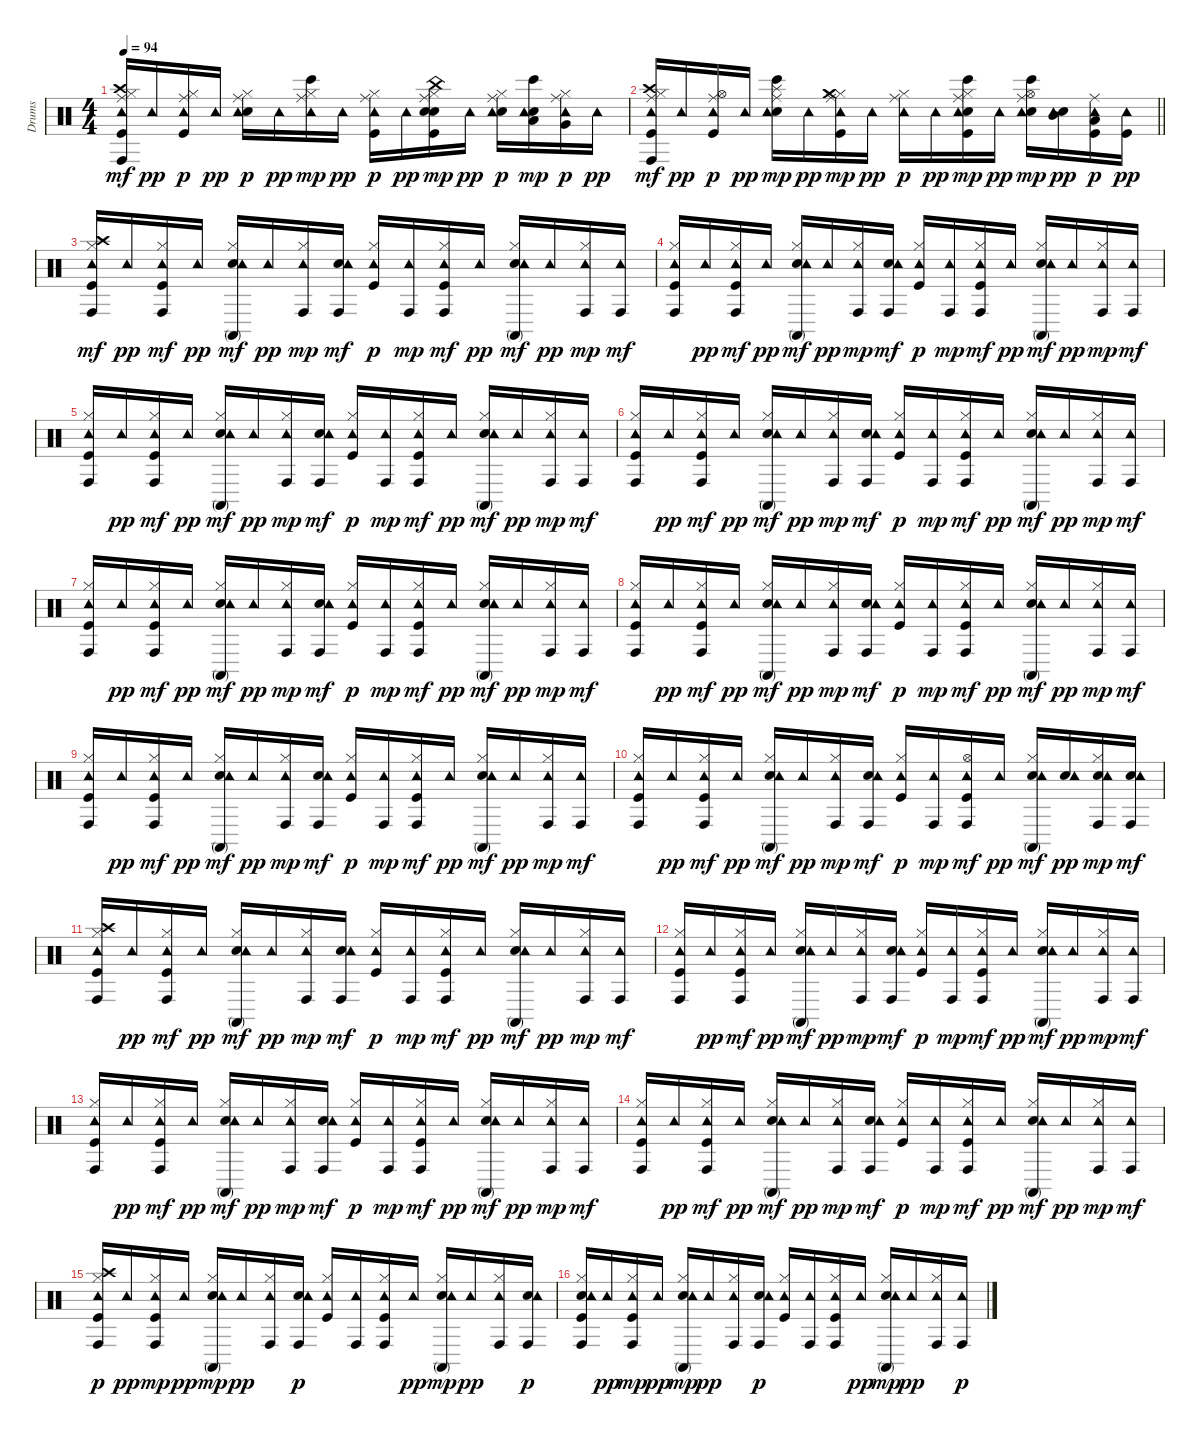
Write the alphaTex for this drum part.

\track ("Drums" "Drums") {instrument percussion}
\staff {score}
\articulation defaults
\ts (4 4)
\tempo 94
\clef neutral
\ks c
("Kick (hit)" "Hi-Hat (closed)" "Crash high (hit)" "Ride (middle)" "Tambourine (hit)" "Conga high (hit)").16{dy mf} "Tambourine (hit)".16{dy pp} ("Kick (hit)" "Hi-Hat (closed)" "Ride (middle)" "Tambourine (hit)").16{dy p} "Tambourine (hit)".16{dy pp} ("Electric Snare (hit)" "Hi-Hat (closed)" "Ride (middle)" "Tambourine (hit)").16{dy p} "Tambourine (hit)".16{dy pp} ("Hi-Hat (closed)" "Ride (middle)" "Tambourine (hit)" "Bongo High (hit)").16{dy mp} "Tambourine (hit)".16{dy pp} ("Kick (hit)" "Hi-Hat (closed)" "Ride (middle)" "Tambourine (hit)").16{dy p} "Tambourine (hit)".16{dy pp} ("Kick (hit)" "Electric Snare (hit)" "Electric Snare (hit)" "Hi-Hat (closed)" "Ride (middle)" "China (hit)").16{dy mp} "Tambourine (hit)".16{dy pp} ("Electric Snare (hit)" "Hi-Hat (closed)" "Ride (middle)" "Tambourine (hit)").16{dy p} ("Electric Snare (hit)" "Low Tom (hit)" "Tambourine (hit)" "Bongo High (hit)").16{dy mp} ("Hi-Hat (closed)" "Very Low Tom (hit)" "Ride (middle)" "Tambourine (hit)").16{dy p} "Tambourine (hit)".16{dy pp} |
\barLineRight lightlight
("Kick (hit)" "Hi-Hat (closed)" "Crash high (hit)" "Ride (middle)" "Tambourine (hit)" "Conga high (hit)").16{dy mf} "Tambourine (hit)".16{dy pp} ("Kick (hit)" "Hi-Hat (open)" "Ride (middle)" "Tambourine (hit)").16{dy p} "Tambourine (hit)".16{dy pp} ("Electric Snare (hit)" "Ride (middle)" "Tambourine (hit)" "Splash (hit)" "Bongo High (hit)").16{dy mp} "Tambourine (hit)".16{dy pp} ("Kick (hit)" "Hi-Hat (closed)" "Ride (middle)" "Tambourine (hit)" "Crash medium (hit)").16{dy mp} "Tambourine (hit)".16{dy pp} ("Hi-Hat (closed)" "Ride (middle)" "Tambourine (hit)").16{dy p} "Tambourine (hit)".16{dy pp} ("Kick (hit)" "Electric Snare (hit)" "Hi-Hat (closed)" "Ride (middle)" "Tambourine (hit)" "Bongo High (hit)").16{dy mp} "Tambourine (hit)".16{dy pp} ("Electric Snare (hit)" "Hi-Hat (open)" "Ride (middle)" "Tambourine (hit)" "Bongo High (hit)").16{dy mp} ("Electric Snare (hit)" "Mid Tom (hit)" "Tambourine (hit)").16{dy pp} ("Kick (hit)" "Low Tom (hit)" "Ride (middle)" "Tambourine (hit)").16{dy p} ("Kick (hit)" "Tambourine (hit)").16{dy pp} |
("Kick (hit)" "Hi-Hat (closed)" "Crash high (hit)" "Tambourine (hit)" "Conga high (hit)").16{dy mf} "Tambourine (hit)".16{dy pp} ("Kick (hit)" "Hi-Hat (closed)" "Tambourine (hit)" "Conga high (hit)").16{dy mf} "Tambourine (hit)".16{dy pp} ("Electric Snare (hit)" "Hi-Hat (closed)" "Tambourine (hit)" "Conga high (mute)").16{dy mf} "Tambourine (hit)".16{dy pp} ("Hi-Hat (closed)" "Tambourine (hit)" "Conga high (hit)").16{dy mp} ("Electric Snare (hit)" "Tambourine (hit)" "Conga high (hit)").16{dy mf} ("Kick (hit)" "Hi-Hat (closed)" "Tambourine (hit)").16{dy p} ("Tambourine (hit)" "Conga high (hit)").16{dy mp} ("Kick (hit)" "Hi-Hat (closed)" "Tambourine (hit)" "Conga high (hit)").16{dy mf} "Tambourine (hit)".16{dy pp} ("Electric Snare (hit)" "Hi-Hat (closed)" "Tambourine (hit)" "Conga high (mute)").16{dy mf} "Tambourine (hit)".16{dy pp} ("Hi-Hat (closed)" "Tambourine (hit)" "Conga high (hit)").16{dy mp} ("Tambourine (hit)" "Conga high (hit)").16{dy mf} |
("Kick (hit)" "Hi-Hat (closed)" "Tambourine (hit)" "Conga high (hit)").16 "Tambourine (hit)".16{dy pp} ("Kick (hit)" "Hi-Hat (closed)" "Tambourine (hit)" "Conga high (hit)").16{dy mf} "Tambourine (hit)".16{dy pp} ("Electric Snare (hit)" "Hi-Hat (closed)" "Tambourine (hit)" "Conga high (mute)").16{dy mf} "Tambourine (hit)".16{dy pp} ("Hi-Hat (closed)" "Tambourine (hit)" "Conga high (hit)").16{dy mp} ("Electric Snare (hit)" "Tambourine (hit)" "Conga high (hit)").16{dy mf} ("Kick (hit)" "Hi-Hat (closed)" "Tambourine (hit)").16{dy p} ("Tambourine (hit)" "Conga high (hit)").16{dy mp} ("Kick (hit)" "Hi-Hat (closed)" "Tambourine (hit)" "Conga high (hit)").16{dy mf} "Tambourine (hit)".16{dy pp} ("Electric Snare (hit)" "Hi-Hat (closed)" "Tambourine (hit)" "Conga high (mute)").16{dy mf} "Tambourine (hit)".16{dy pp} ("Hi-Hat (closed)" "Tambourine (hit)" "Conga high (hit)").16{dy mp} ("Tambourine (hit)" "Conga high (hit)").16{dy mf} |
("Kick (hit)" "Hi-Hat (closed)" "Tambourine (hit)" "Conga high (hit)").16 "Tambourine (hit)".16{dy pp} ("Kick (hit)" "Hi-Hat (closed)" "Tambourine (hit)" "Conga high (hit)").16{dy mf} "Tambourine (hit)".16{dy pp} ("Electric Snare (hit)" "Hi-Hat (closed)" "Tambourine (hit)" "Conga high (mute)").16{dy mf} "Tambourine (hit)".16{dy pp} ("Hi-Hat (closed)" "Tambourine (hit)" "Conga high (hit)").16{dy mp} ("Electric Snare (hit)" "Tambourine (hit)" "Conga high (hit)").16{dy mf} ("Kick (hit)" "Hi-Hat (closed)" "Tambourine (hit)").16{dy p} ("Tambourine (hit)" "Conga high (hit)").16{dy mp} ("Kick (hit)" "Hi-Hat (closed)" "Tambourine (hit)" "Conga high (hit)").16{dy mf} "Tambourine (hit)".16{dy pp} ("Electric Snare (hit)" "Hi-Hat (closed)" "Tambourine (hit)" "Conga high (mute)").16{dy mf} "Tambourine (hit)".16{dy pp} ("Hi-Hat (closed)" "Tambourine (hit)" "Conga high (hit)").16{dy mp} ("Tambourine (hit)" "Conga high (hit)").16{dy mf} |
("Kick (hit)" "Hi-Hat (closed)" "Tambourine (hit)" "Conga high (hit)").16 "Tambourine (hit)".16{dy pp} ("Kick (hit)" "Hi-Hat (closed)" "Tambourine (hit)" "Conga high (hit)").16{dy mf} "Tambourine (hit)".16{dy pp} ("Electric Snare (hit)" "Hi-Hat (closed)" "Tambourine (hit)" "Conga high (mute)").16{dy mf} "Tambourine (hit)".16{dy pp} ("Hi-Hat (closed)" "Tambourine (hit)" "Conga high (hit)").16{dy mp} ("Electric Snare (hit)" "Tambourine (hit)" "Conga high (hit)").16{dy mf} ("Kick (hit)" "Hi-Hat (closed)" "Tambourine (hit)").16{dy p} ("Tambourine (hit)" "Conga high (hit)").16{dy mp} ("Kick (hit)" "Hi-Hat (closed)" "Tambourine (hit)" "Conga high (hit)").16{dy mf} "Tambourine (hit)".16{dy pp} ("Electric Snare (hit)" "Hi-Hat (closed)" "Tambourine (hit)" "Conga high (mute)").16{dy mf} "Tambourine (hit)".16{dy pp} ("Hi-Hat (closed)" "Tambourine (hit)" "Conga high (hit)").16{dy mp} ("Tambourine (hit)" "Conga high (hit)").16{dy mf} |
("Kick (hit)" "Hi-Hat (closed)" "Tambourine (hit)" "Conga high (hit)").16 "Tambourine (hit)".16{dy pp} ("Kick (hit)" "Hi-Hat (closed)" "Tambourine (hit)" "Conga high (hit)").16{dy mf} "Tambourine (hit)".16{dy pp} ("Electric Snare (hit)" "Hi-Hat (closed)" "Tambourine (hit)" "Conga high (mute)").16{dy mf} "Tambourine (hit)".16{dy pp} ("Hi-Hat (closed)" "Tambourine (hit)" "Conga high (hit)").16{dy mp} ("Electric Snare (hit)" "Tambourine (hit)" "Conga high (hit)").16{dy mf} ("Kick (hit)" "Hi-Hat (closed)" "Tambourine (hit)").16{dy p} ("Tambourine (hit)" "Conga high (hit)").16{dy mp} ("Kick (hit)" "Hi-Hat (closed)" "Tambourine (hit)" "Conga high (hit)").16{dy mf} "Tambourine (hit)".16{dy pp} ("Electric Snare (hit)" "Hi-Hat (closed)" "Tambourine (hit)" "Conga high (mute)").16{dy mf} "Tambourine (hit)".16{dy pp} ("Hi-Hat (closed)" "Tambourine (hit)" "Conga high (hit)").16{dy mp} ("Tambourine (hit)" "Conga high (hit)").16{dy mf} |
("Kick (hit)" "Hi-Hat (closed)" "Tambourine (hit)" "Conga high (hit)").16 "Tambourine (hit)".16{dy pp} ("Kick (hit)" "Hi-Hat (closed)" "Tambourine (hit)" "Conga high (hit)").16{dy mf} "Tambourine (hit)".16{dy pp} ("Electric Snare (hit)" "Hi-Hat (closed)" "Tambourine (hit)" "Conga high (mute)").16{dy mf} "Tambourine (hit)".16{dy pp} ("Hi-Hat (closed)" "Tambourine (hit)" "Conga high (hit)").16{dy mp} ("Electric Snare (hit)" "Tambourine (hit)" "Conga high (hit)").16{dy mf} ("Kick (hit)" "Hi-Hat (closed)" "Tambourine (hit)").16{dy p} ("Tambourine (hit)" "Conga high (hit)").16{dy mp} ("Kick (hit)" "Hi-Hat (closed)" "Tambourine (hit)" "Conga high (hit)").16{dy mf} "Tambourine (hit)".16{dy pp} ("Electric Snare (hit)" "Hi-Hat (closed)" "Tambourine (hit)" "Conga high (mute)").16{dy mf} "Tambourine (hit)".16{dy pp} ("Hi-Hat (closed)" "Tambourine (hit)" "Conga high (hit)").16{dy mp} ("Tambourine (hit)" "Conga high (hit)").16{dy mf} |
("Kick (hit)" "Hi-Hat (closed)" "Tambourine (hit)" "Conga high (hit)").16 "Tambourine (hit)".16{dy pp} ("Kick (hit)" "Hi-Hat (closed)" "Tambourine (hit)" "Conga high (hit)").16{dy mf} "Tambourine (hit)".16{dy pp} ("Electric Snare (hit)" "Hi-Hat (closed)" "Tambourine (hit)" "Conga high (mute)").16{dy mf} "Tambourine (hit)".16{dy pp} ("Hi-Hat (closed)" "Tambourine (hit)" "Conga high (hit)").16{dy mp} ("Electric Snare (hit)" "Tambourine (hit)" "Conga high (hit)").16{dy mf} ("Kick (hit)" "Hi-Hat (closed)" "Tambourine (hit)").16{dy p} ("Tambourine (hit)" "Conga high (hit)").16{dy mp} ("Kick (hit)" "Hi-Hat (closed)" "Tambourine (hit)" "Conga high (hit)").16{dy mf} "Tambourine (hit)".16{dy pp} ("Electric Snare (hit)" "Hi-Hat (closed)" "Tambourine (hit)" "Conga high (mute)").16{dy mf} "Tambourine (hit)".16{dy pp} ("Hi-Hat (closed)" "Tambourine (hit)" "Conga high (hit)").16{dy mp} ("Tambourine (hit)" "Conga high (hit)").16{dy mf} |
("Kick (hit)" "Hi-Hat (closed)" "Tambourine (hit)" "Conga high (hit)").16 "Tambourine (hit)".16{dy pp} ("Kick (hit)" "Hi-Hat (closed)" "Tambourine (hit)" "Conga high (hit)").16{dy mf} "Tambourine (hit)".16{dy pp} ("Electric Snare (hit)" "Hi-Hat (closed)" "Tambourine (hit)" "Conga high (mute)").16{dy mf} "Tambourine (hit)".16{dy pp} ("Hi-Hat (closed)" "Tambourine (hit)" "Conga high (hit)").16{dy mp} ("Electric Snare (hit)" "Tambourine (hit)" "Conga high (hit)").16{dy mf} ("Kick (hit)" "Hi-Hat (closed)" "Tambourine (hit)").16{dy p} ("Tambourine (hit)" "Conga high (hit)").16{dy mp} ("Kick (hit)" "Hi-Hat (open)" "Tambourine (hit)" "Conga high (hit)").16{dy mf} "Tambourine (hit)".16{dy pp} ("Electric Snare (hit)" "Hi-Hat (closed)" "Tambourine (hit)" "Conga high (mute)").16{dy mf} ("Electric Snare (hit)" "Tambourine (hit)").16{dy pp} ("Electric Snare (hit)" "Hi-Hat (closed)" "Tambourine (hit)" "Conga high (hit)").16{dy mp} ("Electric Snare (hit)" "Tambourine (hit)" "Conga high (hit)").16{dy mf} |
("Kick (hit)" "Hi-Hat (closed)" "Crash high (hit)" "Tambourine (hit)" "Conga high (hit)").16 "Tambourine (hit)".16{dy pp} ("Kick (hit)" "Hi-Hat (closed)" "Tambourine (hit)" "Conga high (hit)").16{dy mf} "Tambourine (hit)".16{dy pp} ("Electric Snare (hit)" "Hi-Hat (closed)" "Tambourine (hit)" "Conga high (mute)").16{dy mf} "Tambourine (hit)".16{dy pp} ("Hi-Hat (closed)" "Tambourine (hit)" "Conga high (hit)").16{dy mp} ("Electric Snare (hit)" "Tambourine (hit)" "Conga high (hit)").16{dy mf} ("Kick (hit)" "Hi-Hat (closed)" "Tambourine (hit)").16{dy p} ("Tambourine (hit)" "Conga high (hit)").16{dy mp} ("Kick (hit)" "Hi-Hat (closed)" "Tambourine (hit)" "Conga high (hit)").16{dy mf} "Tambourine (hit)".16{dy pp} ("Electric Snare (hit)" "Hi-Hat (closed)" "Tambourine (hit)" "Conga high (mute)").16{dy mf} "Tambourine (hit)".16{dy pp} ("Hi-Hat (closed)" "Tambourine (hit)" "Conga high (hit)").16{dy mp} ("Tambourine (hit)" "Conga high (hit)").16{dy mf} |
("Kick (hit)" "Hi-Hat (closed)" "Tambourine (hit)" "Conga high (hit)").16 "Tambourine (hit)".16{dy pp} ("Kick (hit)" "Hi-Hat (closed)" "Tambourine (hit)" "Conga high (hit)").16{dy mf} "Tambourine (hit)".16{dy pp} ("Electric Snare (hit)" "Hi-Hat (closed)" "Tambourine (hit)" "Conga high (mute)").16{dy mf} "Tambourine (hit)".16{dy pp} ("Hi-Hat (closed)" "Tambourine (hit)" "Conga high (hit)").16{dy mp} ("Electric Snare (hit)" "Tambourine (hit)" "Conga high (hit)").16{dy mf} ("Kick (hit)" "Hi-Hat (closed)" "Tambourine (hit)").16{dy p} ("Tambourine (hit)" "Conga high (hit)").16{dy mp} ("Kick (hit)" "Hi-Hat (closed)" "Tambourine (hit)" "Conga high (hit)").16{dy mf} "Tambourine (hit)".16{dy pp} ("Electric Snare (hit)" "Hi-Hat (closed)" "Tambourine (hit)" "Conga high (mute)").16{dy mf} "Tambourine (hit)".16{dy pp} ("Hi-Hat (closed)" "Tambourine (hit)" "Conga high (hit)").16{dy mp} ("Tambourine (hit)" "Conga high (hit)").16{dy mf} |
("Kick (hit)" "Hi-Hat (closed)" "Tambourine (hit)" "Conga high (hit)").16 "Tambourine (hit)".16{dy pp} ("Kick (hit)" "Hi-Hat (closed)" "Tambourine (hit)" "Conga high (hit)").16{dy mf} "Tambourine (hit)".16{dy pp} ("Electric Snare (hit)" "Hi-Hat (closed)" "Tambourine (hit)" "Conga high (mute)").16{dy mf} "Tambourine (hit)".16{dy pp} ("Hi-Hat (closed)" "Tambourine (hit)" "Conga high (hit)").16{dy mp} ("Electric Snare (hit)" "Tambourine (hit)" "Conga high (hit)").16{dy mf} ("Kick (hit)" "Hi-Hat (closed)" "Tambourine (hit)").16{dy p} ("Tambourine (hit)" "Conga high (hit)").16{dy mp} ("Kick (hit)" "Hi-Hat (closed)" "Tambourine (hit)" "Conga high (hit)").16{dy mf} "Tambourine (hit)".16{dy pp} ("Electric Snare (hit)" "Hi-Hat (closed)" "Tambourine (hit)" "Conga high (mute)").16{dy mf} "Tambourine (hit)".16{dy pp} ("Hi-Hat (closed)" "Tambourine (hit)" "Conga high (hit)").16{dy mp} ("Tambourine (hit)" "Conga high (hit)").16{dy mf} |
("Kick (hit)" "Hi-Hat (closed)" "Tambourine (hit)" "Conga high (hit)").16 "Tambourine (hit)".16{dy pp} ("Kick (hit)" "Hi-Hat (closed)" "Tambourine (hit)" "Conga high (hit)").16{dy mf} "Tambourine (hit)".16{dy pp} ("Electric Snare (hit)" "Hi-Hat (closed)" "Tambourine (hit)" "Conga high (mute)").16{dy mf} "Tambourine (hit)".16{dy pp} ("Hi-Hat (closed)" "Tambourine (hit)" "Conga high (hit)").16{dy mp} ("Electric Snare (hit)" "Tambourine (hit)" "Conga high (hit)").16{dy mf} ("Kick (hit)" "Hi-Hat (closed)" "Tambourine (hit)").16{dy p} ("Tambourine (hit)" "Conga high (hit)").16{dy mp} ("Kick (hit)" "Hi-Hat (closed)" "Tambourine (hit)" "Conga high (hit)").16{dy mf} "Tambourine (hit)".16{dy pp} ("Electric Snare (hit)" "Hi-Hat (closed)" "Tambourine (hit)" "Conga high (mute)").16{dy mf} "Tambourine (hit)".16{dy pp} ("Hi-Hat (closed)" "Tambourine (hit)" "Conga high (hit)").16{dy mp} ("Tambourine (hit)" "Conga high (hit)").16{dy mf} |
("Kick (hit)" "Hi-Hat (closed)" "Crash high (hit)" "Tambourine (hit)" "Conga high (hit)").16{dy p} "Tambourine (hit)".16{dy pp} ("Kick (hit)" "Hi-Hat (closed)" "Tambourine (hit)" "Conga high (hit)").16{dy mp} "Tambourine (hit)".16{dy pp} ("Electric Snare (hit)" "Hi-Hat (closed)" "Tambourine (hit)" "Conga high (mute)").16{dy mp} "Tambourine (hit)".16{dy pp} ("Hi-Hat (closed)" "Tambourine (hit)" "Conga high (hit)").16 ("Electric Snare (hit)" "Tambourine (hit)" "Conga high (hit)").16{dy p} ("Kick (hit)" "Hi-Hat (closed)" "Tambourine (hit)").16 ("Tambourine (hit)" "Conga high (hit)").16 ("Kick (hit)" "Hi-Hat (closed)" "Tambourine (hit)" "Conga high (hit)").16 "Tambourine (hit)".16{dy pp} ("Electric Snare (hit)" "Hi-Hat (closed)" "Tambourine (hit)" "Conga high (mute)").16{dy mp} "Tambourine (hit)".16{dy pp} ("Hi-Hat (closed)" "Tambourine (hit)" "Conga high (hit)").16 ("Electric Snare (hit)" "Tambourine (hit)" "Conga high (hit)").16{dy p} |
("Kick (hit)" "Electric Snare (hit)" "Hi-Hat (closed)" "Tambourine (hit)" "Conga high (hit)").16 "Tambourine (hit)".16{dy pp} ("Kick (hit)" "Hi-Hat (closed)" "Tambourine (hit)" "Conga high (hit)").16{dy mp} "Tambourine (hit)".16{dy pp} ("Electric Snare (hit)" "Hi-Hat (closed)" "Tambourine (hit)" "Conga high (mute)").16{dy mp} "Tambourine (hit)".16{dy pp} ("Hi-Hat (closed)" "Tambourine (hit)" "Conga high (hit)").16 ("Electric Snare (hit)" "Tambourine (hit)" "Conga high (hit)").16{dy p} ("Kick (hit)" "Hi-Hat (closed)" "Tambourine (hit)").16 ("Tambourine (hit)" "Conga high (hit)").16 ("Kick (hit)" "Hi-Hat (closed)" "Tambourine (hit)" "Conga high (hit)").16 "Tambourine (hit)".16{dy pp} ("Electric Snare (hit)" "Hi-Hat (closed)" "Tambourine (hit)" "Conga high (mute)").16{dy mp} "Tambourine (hit)".16{dy pp} ("Hi-Hat (closed)" "Tambourine (hit)" "Conga high (hit)").16 ("Tambourine (hit)" "Conga high (hit)").16{dy p}
